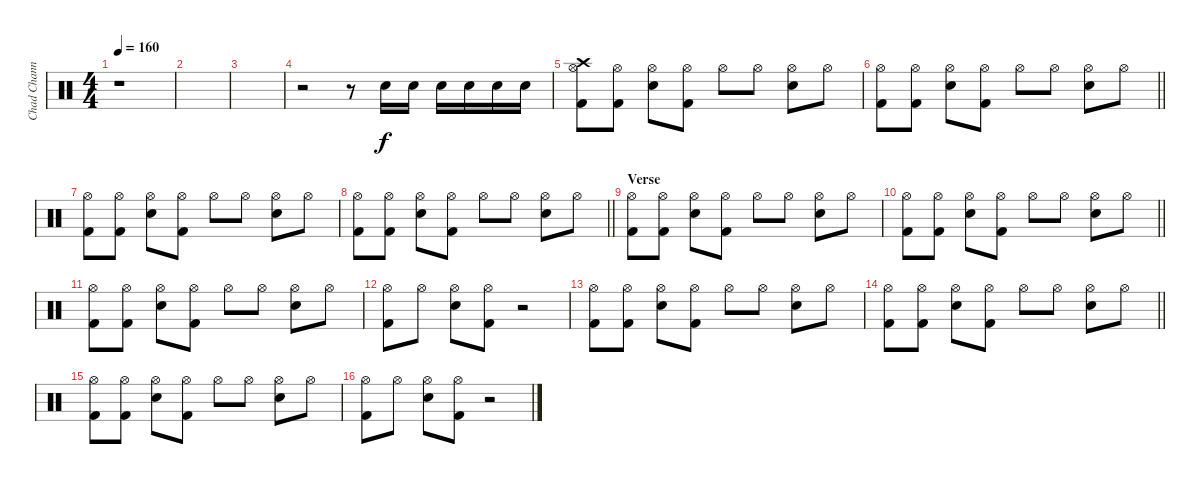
\track ("Chad Channing" "Chad Chann") {instrument percussion}
\staff {score}
\articulation defaults
\ts (4 4)
\tempo 160
\clef neutral
\ks c
r.1{dy f} |
|
|
r.2 r.8 "Snare (hit) 2".16 "Snare (hit) 2".16 "Snare (hit) 2".16 "Snare (hit) 2".16 "Snare (hit) 2".16 "Snare (hit) 2".16 |
("Crash high (hit)" "Hi-Hat (open)" "Kick (hit) 2").8 ("Hi-Hat (open)" "Kick (hit) 2").8 ("Hi-Hat (open)" "Snare (hit) 2").8 ("Hi-Hat (open)" "Kick (hit) 2").8 "Hi-Hat (open)".8 "Hi-Hat (open)".8 ("Hi-Hat (open)" "Snare (hit) 2").8 "Hi-Hat (open)".8 |
\barLineRight lightlight
("Hi-Hat (open)" "Kick (hit) 2").8 ("Hi-Hat (open)" "Kick (hit) 2").8 ("Hi-Hat (open)" "Snare (hit) 2").8 ("Hi-Hat (open)" "Kick (hit) 2").8 "Hi-Hat (open)".8 "Hi-Hat (open)".8 ("Hi-Hat (open)" "Snare (hit) 2").8 "Hi-Hat (open)".8 |
("Hi-Hat (open)" "Kick (hit) 2").8 ("Hi-Hat (open)" "Kick (hit) 2").8 ("Hi-Hat (open)" "Snare (hit) 2").8 ("Hi-Hat (open)" "Kick (hit) 2").8 "Hi-Hat (open)".8 "Hi-Hat (open)".8 ("Hi-Hat (open)" "Snare (hit) 2").8 "Hi-Hat (open)".8 |
\barLineRight lightlight
("Hi-Hat (open)" "Kick (hit) 2").8 ("Hi-Hat (open)" "Kick (hit) 2").8 ("Hi-Hat (open)" "Snare (hit) 2").8 ("Hi-Hat (open)" "Kick (hit) 2").8 "Hi-Hat (open)".8 "Hi-Hat (open)".8 ("Hi-Hat (open)" "Snare (hit) 2").8 "Hi-Hat (open)".8 |
\section ("" "Verse")
("Hi-Hat (open)" "Kick (hit) 2").8 ("Hi-Hat (open)" "Kick (hit) 2").8 ("Hi-Hat (open)" "Snare (hit) 2").8 ("Hi-Hat (open)" "Kick (hit) 2").8 "Hi-Hat (open)".8 "Hi-Hat (open)".8 ("Hi-Hat (open)" "Snare (hit) 2").8 "Hi-Hat (open)".8 |
\barLineRight lightlight
("Hi-Hat (open)" "Kick (hit) 2").8 ("Hi-Hat (open)" "Kick (hit) 2").8 ("Hi-Hat (open)" "Snare (hit) 2").8 ("Hi-Hat (open)" "Kick (hit) 2").8 "Hi-Hat (open)".8 "Hi-Hat (open)".8 ("Hi-Hat (open)" "Snare (hit) 2").8 "Hi-Hat (open)".8 |
("Hi-Hat (open)" "Kick (hit) 2").8 ("Hi-Hat (open)" "Kick (hit) 2").8 ("Hi-Hat (open)" "Snare (hit) 2").8 ("Hi-Hat (open)" "Kick (hit) 2").8 "Hi-Hat (open)".8 "Hi-Hat (open)".8 ("Hi-Hat (open)" "Snare (hit) 2").8 "Hi-Hat (open)".8 |
("Hi-Hat (open)" "Kick (hit) 2").8 "Hi-Hat (open)".8 ("Hi-Hat (open)" "Snare (hit) 2").8 ("Hi-Hat (open)" "Kick (hit) 2").8 r.2 |
("Hi-Hat (open)" "Kick (hit) 2").8 ("Hi-Hat (open)" "Kick (hit) 2").8 ("Hi-Hat (open)" "Snare (hit) 2").8 ("Hi-Hat (open)" "Kick (hit) 2").8 "Hi-Hat (open)".8 "Hi-Hat (open)".8 ("Hi-Hat (open)" "Snare (hit) 2").8 "Hi-Hat (open)".8 |
\barLineRight lightlight
("Hi-Hat (open)" "Kick (hit) 2").8 ("Hi-Hat (open)" "Kick (hit) 2").8 ("Hi-Hat (open)" "Snare (hit) 2").8 ("Hi-Hat (open)" "Kick (hit) 2").8 "Hi-Hat (open)".8 "Hi-Hat (open)".8 ("Hi-Hat (open)" "Snare (hit) 2").8 "Hi-Hat (open)".8 |
("Hi-Hat (open)" "Kick (hit) 2").8 ("Hi-Hat (open)" "Kick (hit) 2").8 ("Hi-Hat (open)" "Snare (hit) 2").8 ("Hi-Hat (open)" "Kick (hit) 2").8 "Hi-Hat (open)".8 "Hi-Hat (open)".8 ("Hi-Hat (open)" "Snare (hit) 2").8 "Hi-Hat (open)".8 |
("Hi-Hat (open)" "Kick (hit) 2").8 "Hi-Hat (open)".8 ("Hi-Hat (open)" "Snare (hit) 2").8 ("Hi-Hat (open)" "Kick (hit) 2").8 r.2
